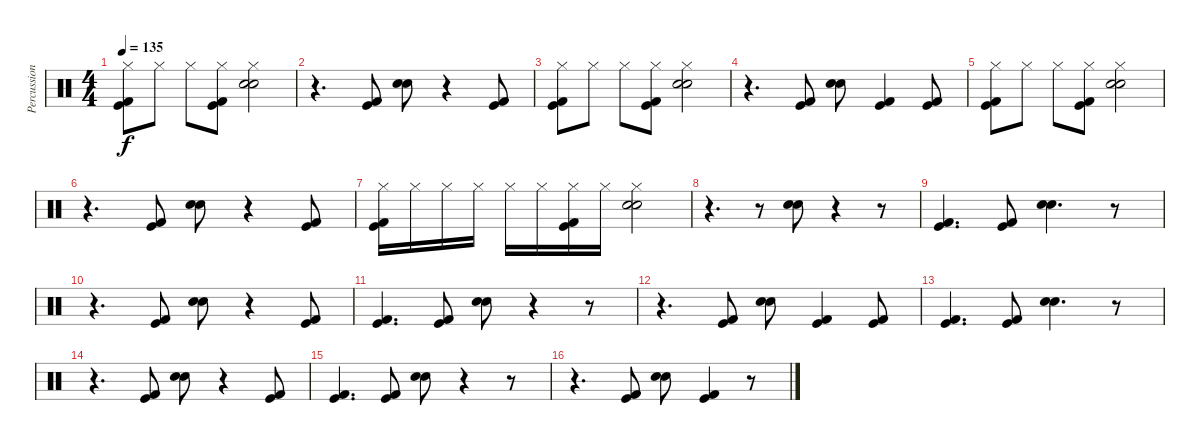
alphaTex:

\track ("Percussion" "Percussion") {instrument percussion}
\staff {score}
\articulation defaults
\ts (4 4)
\tempo 135
\clef neutral
\ks c
("Hi-Hat (closed)" "Kick (hit) 2" "Kick (hit)").8{dy f} "Hi-Hat (closed)".8 "Hi-Hat (closed)".8 ("Hi-Hat (closed)" "Kick (hit) 2" "Kick (hit)").8 ("Hi-Hat (closed)" "Hand Clap (hit)" "Electric Snare (hit)").2 |
r.4{d} ("Kick (hit) 2" "Kick (hit)").8 ("Electric Snare (hit)" "Hand Clap (hit)").8 r.4 ("Kick (hit) 2" "Kick (hit)").8 |
("Hi-Hat (closed)" "Kick (hit) 2" "Kick (hit)").8 "Hi-Hat (closed)".8 "Hi-Hat (closed)".8 ("Hi-Hat (closed)" "Kick (hit) 2" "Kick (hit)").8 ("Hi-Hat (closed)" "Hand Clap (hit)" "Electric Snare (hit)").2 |
r.4{d} ("Kick (hit) 2" "Kick (hit)").8 ("Electric Snare (hit)" "Hand Clap (hit)").8 ("Kick (hit) 2" "Kick (hit)").4 ("Kick (hit) 2" "Kick (hit)").8 |
("Hi-Hat (closed)" "Kick (hit) 2" "Kick (hit)").8 "Hi-Hat (closed)".8 "Hi-Hat (closed)".8 ("Hi-Hat (closed)" "Kick (hit) 2" "Kick (hit)").8 ("Hi-Hat (closed)" "Hand Clap (hit)" "Electric Snare (hit)").2 |
r.4{d} ("Kick (hit) 2" "Kick (hit)").8 ("Electric Snare (hit)" "Hand Clap (hit)").8 r.4 ("Kick (hit) 2" "Kick (hit)").8 |
("Hi-Hat (closed)" "Kick (hit) 2" "Kick (hit)").16 "Hi-Hat (closed)".16 "Hi-Hat (closed)".16 "Hi-Hat (closed)".16 "Hi-Hat (closed)".16 "Hi-Hat (closed)".16 ("Hi-Hat (closed)" "Kick (hit) 2" "Kick (hit)").16 "Hi-Hat (closed)".16 ("Hi-Hat (closed)" "Hand Clap (hit)" "Electric Snare (hit)").2 |
r.4{d} r.8 ("Electric Snare (hit)" "Hand Clap (hit)").8 r.4 r.8 |
("Kick (hit) 2" "Kick (hit)").4{d} ("Kick (hit) 2" "Kick (hit)").8 ("Electric Snare (hit)" "Hand Clap (hit)").4{d} r.8 |
r.4{d} ("Kick (hit) 2" "Kick (hit)").8 ("Electric Snare (hit)" "Hand Clap (hit)").8 r.4 ("Kick (hit) 2" "Kick (hit)").8 |
("Kick (hit) 2" "Kick (hit)").4{d} ("Kick (hit) 2" "Kick (hit)").8 ("Electric Snare (hit)" "Hand Clap (hit)").8 r.4 r.8 |
r.4{d} ("Kick (hit) 2" "Kick (hit)").8 ("Electric Snare (hit)" "Hand Clap (hit)").8 ("Kick (hit) 2" "Kick (hit)").4 ("Kick (hit) 2" "Kick (hit)").8 |
("Kick (hit) 2" "Kick (hit)").4{d} ("Kick (hit) 2" "Kick (hit)").8 ("Electric Snare (hit)" "Hand Clap (hit)").4{d} r.8 |
r.4{d} ("Kick (hit) 2" "Kick (hit)").8 ("Electric Snare (hit)" "Hand Clap (hit)").8 r.4 ("Kick (hit) 2" "Kick (hit)").8 |
("Kick (hit) 2" "Kick (hit)").4{d} ("Kick (hit) 2" "Kick (hit)").8 ("Electric Snare (hit)" "Hand Clap (hit)").8 r.4 r.8 |
r.4{d} ("Kick (hit) 2" "Kick (hit)").8 ("Electric Snare (hit)" "Hand Clap (hit)").8 ("Kick (hit) 2" "Kick (hit)").4 r.8
